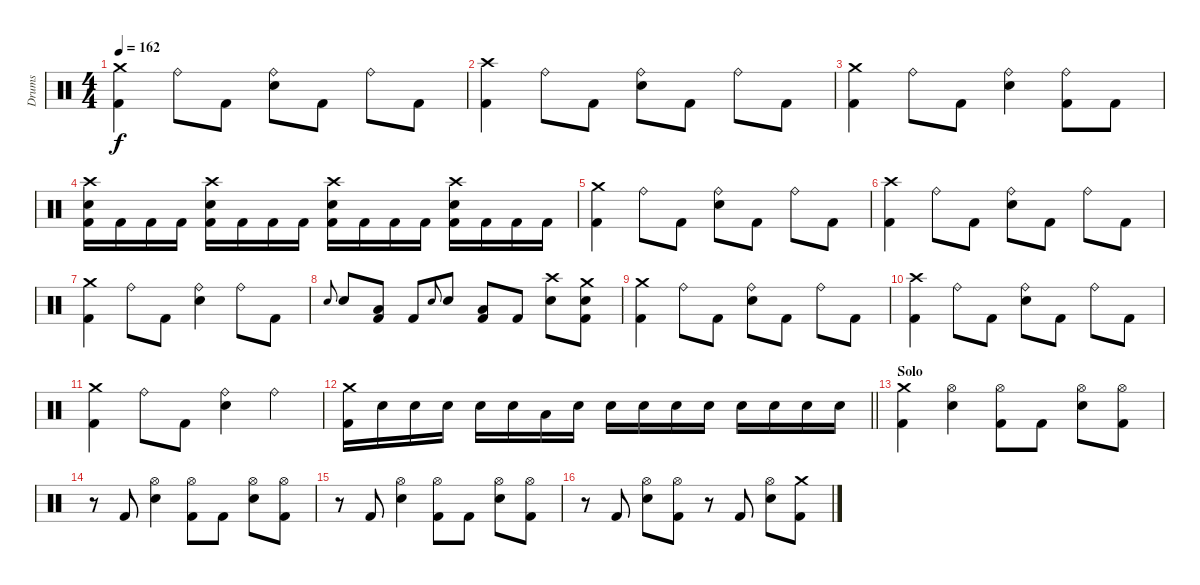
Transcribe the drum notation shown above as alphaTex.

\track ("Drums" "Drums") {instrument percussion}
\staff {score}
\articulation defaults
\ts (4 4)
\tempo 162
\clef neutral
\ks c
("Crash medium (hit)" "Kick (hit) 2").4{dy f} "Ride (bell)".8 "Kick (hit) 2".8 ("Ride (bell)" "Snare (hit) 2").8 "Kick (hit) 2".8 "Ride (bell)".8 "Kick (hit) 2".8 |
("Crash high (hit)" "Kick (hit) 2").4 "Ride (bell)".8 "Kick (hit) 2".8 ("Ride (bell)" "Snare (hit) 2").8 "Kick (hit) 2".8 "Ride (bell)".8 "Kick (hit) 2".8 |
("Crash medium (hit)" "Kick (hit) 2").4 "Ride (bell)".8 "Kick (hit) 2".8 ("Ride (bell)" "Snare (hit) 2").4 ("Ride (bell)" "Kick (hit) 2").8 "Kick (hit) 2".8 |
("Crash high (hit)" "Snare (hit) 2" "Kick (hit) 2").16 "Kick (hit) 2".16 "Kick (hit) 2".16 "Kick (hit) 2".16 ("Crash high (hit)" "Snare (hit) 2" "Kick (hit) 2").16 "Kick (hit) 2".16 "Kick (hit) 2".16 "Kick (hit) 2".16 ("Crash high (hit)" "Snare (hit) 2" "Kick (hit) 2").16 "Kick (hit) 2".16 "Kick (hit) 2".16 "Kick (hit) 2".16 ("Crash high (hit)" "Snare (hit) 2" "Kick (hit) 2").16 "Kick (hit) 2".16 "Kick (hit) 2".16 "Kick (hit) 2".16 |
("Crash medium (hit)" "Kick (hit) 2").4 "Ride (bell)".8 "Kick (hit) 2".8 ("Ride (bell)" "Snare (hit) 2").8 "Kick (hit) 2".8 "Ride (bell)".8 "Kick (hit) 2".8 |
("Crash high (hit)" "Kick (hit) 2").4 "Ride (bell)".8 "Kick (hit) 2".8 ("Ride (bell)" "Snare (hit) 2").8 "Kick (hit) 2".8 "Ride (bell)".8 "Kick (hit) 2".8 |
("Crash medium (hit)" "Kick (hit) 2").4 "Ride (bell)".8 "Kick (hit) 2".8 ("Ride (bell)" "Snare (hit) 2").4 "Ride (bell)".8 "Kick (hit) 2".8 |
"Snare (hit) 2".8{gr onbeat} "Snare (hit) 2".8 ("Low Floor Tom (hit)" "Kick (hit) 2").8 "Kick (hit) 2".8 "Snare (hit) 2".8{gr onbeat} "Snare (hit) 2".8 ("Low Floor Tom (hit)" "Kick (hit) 2").8 "Kick (hit) 2".8 ("Crash high (hit)" "Snare (hit) 2").8 ("Crash medium (hit)" "Snare (hit) 2" "Kick (hit) 2").8 |
("Crash medium (hit)" "Kick (hit) 2").4 "Ride (bell)".8 "Kick (hit) 2".8 ("Ride (bell)" "Snare (hit) 2").8 "Kick (hit) 2".8 "Ride (bell)".8 "Kick (hit) 2".8 |
("Crash high (hit)" "Kick (hit) 2").4 "Ride (bell)".8 "Kick (hit) 2".8 ("Ride (bell)" "Snare (hit) 2").8 "Kick (hit) 2".8 "Ride (bell)".8 "Kick (hit) 2".8 |
("Crash medium (hit)" "Kick (hit) 2").4 "Ride (bell)".8 "Kick (hit) 2".8 ("Ride (bell)" "Snare (hit) 2").4 "Ride (bell)".4 |
\barLineRight lightlight
("Crash medium (hit)" "Kick (hit) 2").16 "Snare (hit) 2".16 "Snare (hit) 2".16 "Snare (hit) 2".16 "Snare (hit) 2".16 "Snare (hit) 2".16 "Low Tom (hit)".16 "Snare (hit) 2".16 "Snare (hit) 2".16 "Snare (hit) 2".16 "Snare (hit) 2".16 "Snare (hit) 2".16 "Snare (hit) 2".16 "Snare (hit) 2".16 "Snare (hit) 2".16 "Snare (hit) 2".16 |
\section ("" "Solo")
("Crash medium (hit)" "Kick (hit) 2").4 ("Hi-Hat (open)" "Snare (hit) 2").4 ("Hi-Hat (open)" "Kick (hit) 2").8 "Kick (hit) 2".8 ("Hi-Hat (open)" "Snare (hit) 2").8 ("Hi-Hat (open)" "Kick (hit) 2").8 |
r.8 "Kick (hit) 2".8 ("Hi-Hat (open)" "Snare (hit) 2").4 ("Hi-Hat (open)" "Kick (hit) 2").8 "Kick (hit) 2".8 ("Hi-Hat (open)" "Snare (hit) 2").8 ("Hi-Hat (open)" "Kick (hit) 2").8 |
r.8 "Kick (hit) 2".8 ("Hi-Hat (open)" "Snare (hit) 2").4 ("Hi-Hat (open)" "Kick (hit) 2").8 "Kick (hit) 2".8 ("Hi-Hat (open)" "Snare (hit) 2").8 ("Hi-Hat (open)" "Kick (hit) 2").8 |
r.8 "Kick (hit) 2".8 ("Hi-Hat (open)" "Snare (hit) 2").8 ("Hi-Hat (open)" "Kick (hit) 2").8 r.8 "Kick (hit) 2".8 ("Hi-Hat (open)" "Snare (hit) 2").8 ("Crash medium (hit)" "Kick (hit) 2").8
